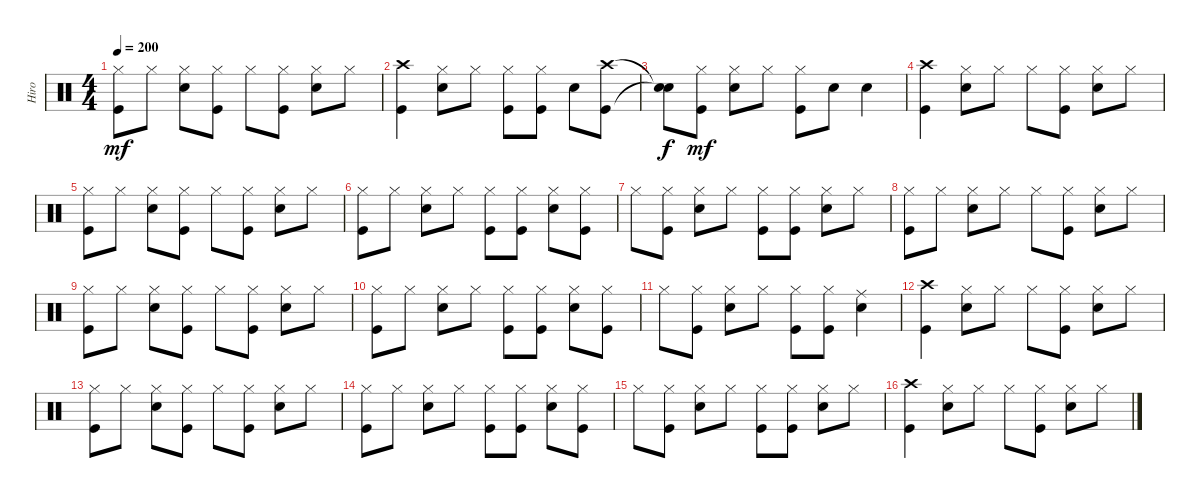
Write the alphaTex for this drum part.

\track ("Hiro" "Hiro") {instrument percussion}
\staff {score}
\articulation defaults
\ts (4 4)
\tempo 200
\clef neutral
\ks c
("Kick (hit)" "Hi-Hat (closed)").8{dy mf} "Hi-Hat (closed)".8 ("Electric Snare (hit)" "Hi-Hat (closed)").8 ("Kick (hit)" "Hi-Hat (closed)").8 "Hi-Hat (closed)".8 ("Kick (hit)" "Hi-Hat (closed)").8 ("Electric Snare (hit)" "Hi-Hat (closed)").8 "Hi-Hat (closed)".8 |
("Crash high (hit)" "Kick (hit)").4 ("Electric Snare (hit)" "Hi-Hat (closed)").8 "Hi-Hat (closed)".8 ("Kick (hit)" "Hi-Hat (closed)").8 ("Kick (hit)" "Hi-Hat (closed)").8 "Electric Snare (hit)".8 ("Kick (hit)" "Crash high (hit)").8 |
("Snare (hit)"{t} "Snare (hit)"{t}).8{dy f} ("Kick (hit)" "Hi-Hat (closed)").8{dy mf} ("Electric Snare (hit)" "Hi-Hat (closed)").8 "Hi-Hat (closed)".8 ("Kick (hit)" "Hi-Hat (closed)").8 "Electric Snare (hit)".8 "Electric Snare (hit)".4 |
("Kick (hit)" "Crash high (hit)").4 ("Hi-Hat (closed)" "Electric Snare (hit)").8 "Hi-Hat (closed)".8 "Hi-Hat (closed)".8 ("Hi-Hat (closed)" "Kick (hit)").8 ("Hi-Hat (closed)" "Electric Snare (hit)").8 "Hi-Hat (closed)".8 |
("Hi-Hat (closed)" "Kick (hit)").8 "Hi-Hat (closed)".8 ("Hi-Hat (closed)" "Electric Snare (hit)").8 ("Hi-Hat (closed)" "Kick (hit)").8 "Hi-Hat (closed)".8 ("Hi-Hat (closed)" "Kick (hit)").8 ("Hi-Hat (closed)" "Electric Snare (hit)").8 "Hi-Hat (closed)".8 |
("Hi-Hat (closed)" "Kick (hit)").8 "Hi-Hat (closed)".8 ("Hi-Hat (closed)" "Electric Snare (hit)").8 "Hi-Hat (closed)".8 ("Hi-Hat (closed)" "Kick (hit)").8 ("Hi-Hat (closed)" "Kick (hit)").8 ("Hi-Hat (closed)" "Electric Snare (hit)").8 ("Hi-Hat (closed)" "Kick (hit)").8 |
"Hi-Hat (closed)".8 ("Hi-Hat (closed)" "Kick (hit)").8 ("Hi-Hat (closed)" "Electric Snare (hit)").8 "Hi-Hat (closed)".8 ("Hi-Hat (closed)" "Kick (hit)").8 ("Hi-Hat (closed)" "Kick (hit)").8 ("Hi-Hat (closed)" "Electric Snare (hit)").8 "Hi-Hat (closed)".8 |
("Hi-Hat (closed)" "Kick (hit)").8 "Hi-Hat (closed)".8 ("Electric Snare (hit)" "Hi-Hat (closed)").8 "Hi-Hat (closed)".8 "Hi-Hat (closed)".8 ("Kick (hit)" "Hi-Hat (closed)").8 ("Electric Snare (hit)" "Hi-Hat (closed)").8 "Hi-Hat (closed)".8 |
("Kick (hit)" "Hi-Hat (closed)").8 "Hi-Hat (closed)".8 ("Electric Snare (hit)" "Hi-Hat (closed)").8 ("Kick (hit)" "Hi-Hat (closed)").8 "Hi-Hat (closed)".8 ("Kick (hit)" "Hi-Hat (closed)").8 ("Electric Snare (hit)" "Hi-Hat (closed)").8 "Hi-Hat (closed)".8 |
("Kick (hit)" "Hi-Hat (closed)").8 "Hi-Hat (closed)".8 ("Electric Snare (hit)" "Hi-Hat (closed)").8 "Hi-Hat (closed)".8 ("Kick (hit)" "Hi-Hat (closed)").8 ("Kick (hit)" "Hi-Hat (closed)").8 ("Electric Snare (hit)" "Hi-Hat (closed)").8 ("Kick (hit)" "Hi-Hat (closed)").8 |
"Hi-Hat (closed)".8 ("Kick (hit)" "Hi-Hat (closed)").8 ("Electric Snare (hit)" "Hi-Hat (closed)").8 "Hi-Hat (closed)".8 ("Kick (hit)" "Hi-Hat (closed)").8 ("Kick (hit)" "Hi-Hat (closed)").8 ("Ride (middle)" "Electric Snare (hit)").4 |
("Crash high (hit)" "Kick (hit)").4 ("Electric Snare (hit)" "Hi-Hat (closed)").8 "Hi-Hat (closed)".8 "Hi-Hat (closed)".8 ("Kick (hit)" "Hi-Hat (closed)").8 ("Electric Snare (hit)" "Hi-Hat (closed)").8 "Hi-Hat (closed)".8 |
("Kick (hit)" "Hi-Hat (closed)").8 "Hi-Hat (closed)".8 ("Electric Snare (hit)" "Hi-Hat (closed)").8 ("Kick (hit)" "Hi-Hat (closed)").8 "Hi-Hat (closed)".8 ("Kick (hit)" "Hi-Hat (closed)").8 ("Electric Snare (hit)" "Hi-Hat (closed)").8 "Hi-Hat (closed)".8 |
("Kick (hit)" "Hi-Hat (closed)").8 "Hi-Hat (closed)".8 ("Electric Snare (hit)" "Hi-Hat (closed)").8 "Hi-Hat (closed)".8 ("Kick (hit)" "Hi-Hat (closed)").8 ("Kick (hit)" "Hi-Hat (closed)").8 ("Electric Snare (hit)" "Hi-Hat (closed)").8 ("Kick (hit)" "Hi-Hat (closed)").8 |
"Hi-Hat (closed)".8 ("Kick (hit)" "Hi-Hat (closed)").8 ("Electric Snare (hit)" "Hi-Hat (closed)").8 "Hi-Hat (closed)".8 ("Kick (hit)" "Hi-Hat (closed)").8 ("Kick (hit)" "Hi-Hat (closed)").8 ("Electric Snare (hit)" "Hi-Hat (closed)").8 "Hi-Hat (closed)".8 |
("Kick (hit)" "Crash high (hit)").4 ("Hi-Hat (closed)" "Electric Snare (hit)").8 "Hi-Hat (closed)".8 "Hi-Hat (closed)".8 ("Hi-Hat (closed)" "Kick (hit)").8 ("Hi-Hat (closed)" "Electric Snare (hit)").8 "Hi-Hat (closed)".8
